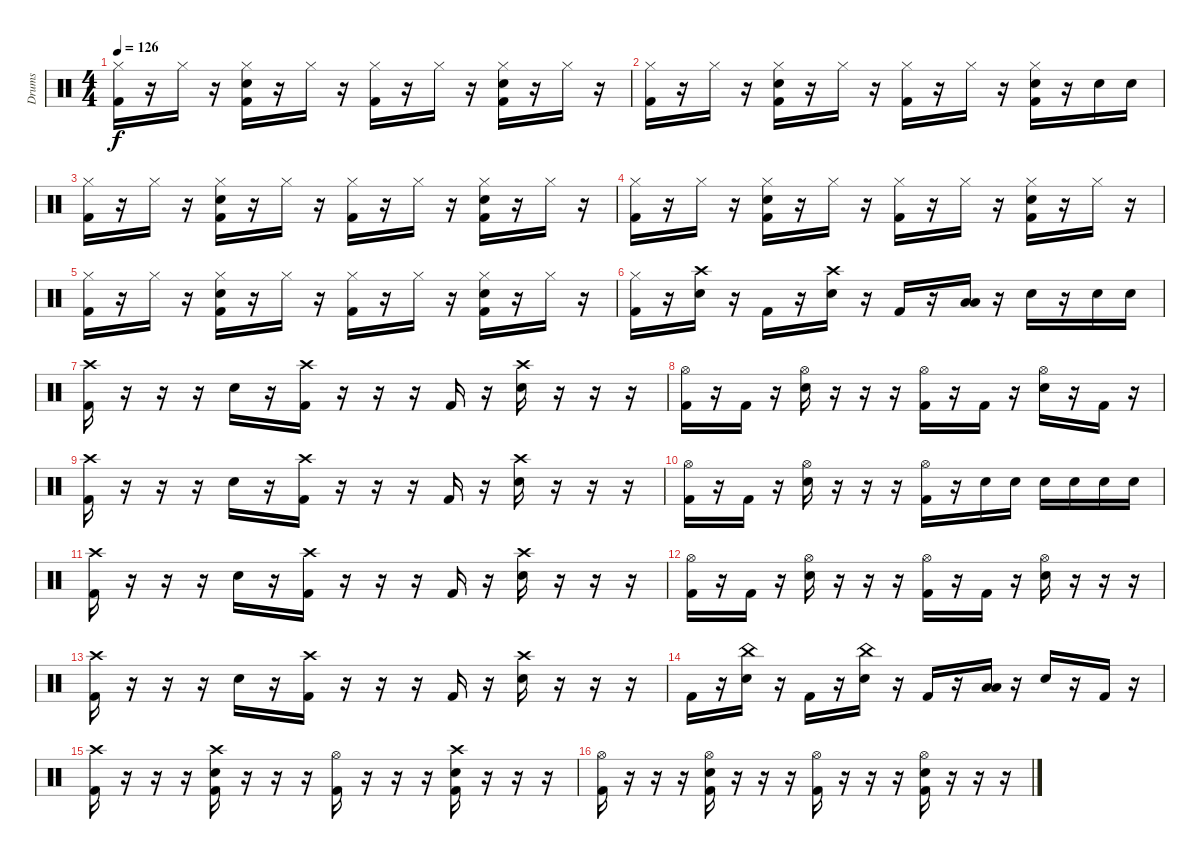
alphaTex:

\track ("Drums" "Drums") {instrument percussion}
\staff {score}
\articulation defaults
\ts (4 4)
\tempo 126
\clef neutral
\ks c
("Hi-Hat (closed)" "Kick (hit) 2").16{dy f} r.16 "Hi-Hat (closed)".16 r.16 ("Hi-Hat (closed)" "Snare (hit) 2" "Kick (hit) 2").16 r.16 "Hi-Hat (closed)".16 r.16 ("Hi-Hat (closed)" "Kick (hit) 2").16 r.16 "Hi-Hat (closed)".16 r.16 ("Hi-Hat (closed)" "Snare (hit) 2" "Kick (hit) 2").16 r.16 "Hi-Hat (closed)".16 r.16 |
("Hi-Hat (closed)" "Kick (hit) 2").16 r.16 "Hi-Hat (closed)".16 r.16 ("Hi-Hat (closed)" "Snare (hit) 2" "Kick (hit) 2").16 r.16 "Hi-Hat (closed)".16 r.16 ("Hi-Hat (closed)" "Kick (hit) 2").16 r.16 "Hi-Hat (closed)".16 r.16 ("Hi-Hat (closed)" "Snare (hit) 2" "Kick (hit) 2").16 r.16 "Snare (hit) 2".16 "Snare (hit) 2".16 |
("Hi-Hat (closed)" "Kick (hit) 2").16 r.16 "Hi-Hat (closed)".16 r.16 ("Hi-Hat (closed)" "Snare (hit) 2" "Kick (hit) 2").16 r.16 "Hi-Hat (closed)".16 r.16 ("Hi-Hat (closed)" "Kick (hit) 2").16 r.16 "Hi-Hat (closed)".16 r.16 ("Hi-Hat (closed)" "Snare (hit) 2" "Kick (hit) 2").16 r.16 "Hi-Hat (closed)".16 r.16 |
("Hi-Hat (closed)" "Kick (hit) 2").16 r.16 "Hi-Hat (closed)".16 r.16 ("Hi-Hat (closed)" "Snare (hit) 2" "Kick (hit) 2").16 r.16 "Hi-Hat (closed)".16 r.16 ("Hi-Hat (closed)" "Kick (hit) 2").16 r.16 "Hi-Hat (closed)".16 r.16 ("Hi-Hat (closed)" "Snare (hit) 2" "Kick (hit) 2").16 r.16 "Hi-Hat (closed)".16 r.16 |
("Hi-Hat (closed)" "Kick (hit) 2").16 r.16 "Hi-Hat (closed)".16 r.16 ("Hi-Hat (closed)" "Snare (hit) 2" "Kick (hit) 2").16 r.16 "Hi-Hat (closed)".16 r.16 ("Hi-Hat (closed)" "Kick (hit) 2").16 r.16 "Hi-Hat (closed)".16 r.16 ("Hi-Hat (closed)" "Snare (hit) 2" "Kick (hit) 2").16 r.16 "Hi-Hat (closed)".16 r.16 |
("Hi-Hat (closed)" "Kick (hit) 2").16 r.16 ("Crash high (hit)" "Snare (hit) 2").16 r.16 "Kick (hit) 2".16 r.16 ("Crash high (hit)" "Snare (hit) 2").16 r.16 "Kick (hit) 2".16 r.16 ("Low Tom (hit)" "Low Floor Tom (hit)").16 r.16 "Snare (hit) 2".16 r.16 "Snare (hit) 2".16 "Snare (hit) 2".16 |
("Crash high (hit)" "Kick (hit) 2").16 r.16 r.16 r.16 "Snare (hit) 2".16 r.16 ("Crash high (hit)" "Kick (hit) 2").16 r.16 r.16 r.16 "Kick (hit) 2".16 r.16 ("Crash high (hit)" "Snare (hit) 2").16 r.16 r.16 r.16 |
("Hi-Hat (open)" "Kick (hit) 2").16 r.16 "Kick (hit) 2".16 r.16 ("Hi-Hat (open)" "Snare (hit) 2").16 r.16 r.16 r.16 ("Hi-Hat (open)" "Kick (hit) 2").16 r.16 "Kick (hit) 2".16 r.16 ("Hi-Hat (open)" "Snare (hit) 2").16 r.16 "Kick (hit) 2".16 r.16 |
("Crash high (hit)" "Kick (hit) 2").16 r.16 r.16 r.16 "Snare (hit) 2".16 r.16 ("Crash high (hit)" "Kick (hit) 2").16 r.16 r.16 r.16 "Kick (hit) 2".16 r.16 ("Crash high (hit)" "Snare (hit) 2").16 r.16 r.16 r.16 |
("Hi-Hat (open)" "Kick (hit) 2").16 r.16 "Kick (hit) 2".16 r.16 ("Hi-Hat (open)" "Snare (hit) 2").16 r.16 r.16 r.16 ("Hi-Hat (open)" "Kick (hit) 2").16 r.16 "Snare (hit) 2".16 "Snare (hit) 2".16 "Snare (hit) 2".16 "Snare (hit) 2".16 "Snare (hit) 2".16 "Snare (hit) 2".16 |
("Crash high (hit)" "Kick (hit) 2").16 r.16 r.16 r.16 "Snare (hit) 2".16 r.16 ("Crash high (hit)" "Kick (hit) 2").16 r.16 r.16 r.16 "Kick (hit) 2".16 r.16 ("Crash high (hit)" "Snare (hit) 2").16 r.16 r.16 r.16 |
("Hi-Hat (open)" "Kick (hit) 2").16 r.16 "Kick (hit) 2".16 r.16 ("Hi-Hat (open)" "Snare (hit) 2").16 r.16 r.16 r.16 ("Hi-Hat (open)" "Kick (hit) 2").16 r.16 "Kick (hit) 2".16 r.16 ("Hi-Hat (open)" "Snare (hit) 2").16 r.16 r.16 r.16 |
("Crash high (hit)" "Kick (hit) 2").16 r.16 r.16 r.16 "Snare (hit) 2".16 r.16 ("Crash high (hit)" "Kick (hit) 2").16 r.16 r.16 r.16 "Kick (hit) 2".16 r.16 ("Crash high (hit)" "Snare (hit) 2").16 r.16 r.16 r.16 |
"Kick (hit) 2".16 r.16 ("China (hit)" "Snare (hit) 2").16 r.16 "Kick (hit) 2".16 r.16 ("China (hit)" "Snare (hit) 2").16 r.16 "Kick (hit) 2".16 r.16 ("Low Tom (hit)" "Low Floor Tom (hit)").16 r.16 "Snare (hit) 2".16 r.16 "Kick (hit) 2".16 r.16 |
("Crash high (hit)" "Kick (hit) 2").16 r.16 r.16 r.16 ("Crash high (hit)" "Snare (hit) 2" "Kick (hit) 2").16 r.16 r.16 r.16 ("Hi-Hat (open)" "Kick (hit) 2").16 r.16 r.16 r.16 ("Crash high (hit)" "Snare (hit) 2" "Kick (hit) 2").16 r.16 r.16 r.16 |
("Hi-Hat (open)" "Kick (hit) 2").16 r.16 r.16 r.16 ("Hi-Hat (open)" "Snare (hit) 2" "Kick (hit) 2").16 r.16 r.16 r.16 ("Hi-Hat (open)" "Kick (hit) 2").16 r.16 r.16 r.16 ("Hi-Hat (open)" "Snare (hit) 2" "Kick (hit) 2").16 r.16 r.16 r.16
